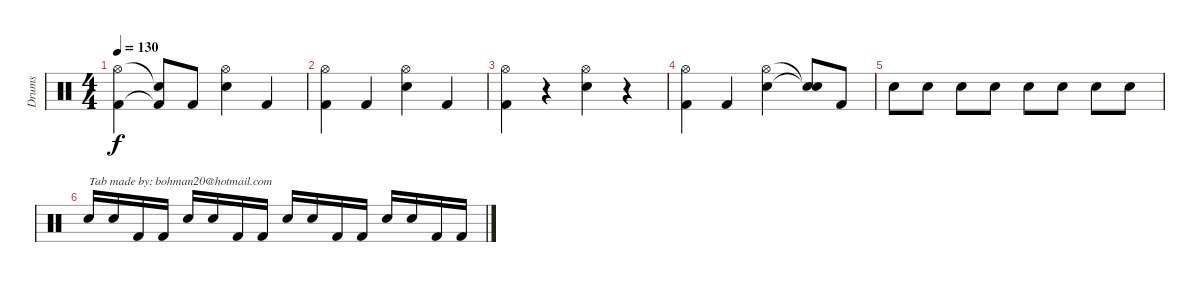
\track ("Drums" "Drums") {instrument percussion}
\staff {score}
\articulation defaults
\ts (4 4)
\tempo 130
\clef neutral
\ks c
("Hi-Hat (open)" "Kick (hit) 2").4{dy f} ("Snare (hit)"{t} "Kick (hit) 2"{t}).8 "Kick (hit) 2".8 ("Hi-Hat (open)" "Electric Snare (hit)").4 "Kick (hit) 2".4 |
("Hi-Hat (open)" "Kick (hit) 2").4 "Kick (hit) 2".4 ("Hi-Hat (open)" "Electric Snare (hit)").4 "Kick (hit) 2".4 |
("Hi-Hat (open)" "Kick (hit) 2").4 r.4 ("Hi-Hat (open)" "Electric Snare (hit)").4 r.4 |
("Hi-Hat (open)" "Kick (hit) 2").4 "Kick (hit) 2".4 ("Hi-Hat (open)" "Electric Snare (hit)").4 ("Snare (hit)"{t} "Snare (hit)"{t}).8 "Kick (hit) 2".8 |
"Electric Snare (hit)".8 "Electric Snare (hit)".8 "Electric Snare (hit)".8 "Electric Snare (hit)".8 "Electric Snare (hit)".8 "Electric Snare (hit)".8 "Electric Snare (hit)".8 "Electric Snare (hit)".8 |
"Electric Snare (hit)".16{txt "Tab made by: bohman20@hotmail.com"} "Electric Snare (hit)".16 "Kick (hit) 2".16 "Kick (hit) 2".16 "Electric Snare (hit)".16 "Electric Snare (hit)".16 "Kick (hit) 2".16 "Kick (hit) 2".16 "Electric Snare (hit)".16 "Electric Snare (hit)".16 "Kick (hit) 2".16 "Kick (hit) 2".16 "Electric Snare (hit)".16 "Electric Snare (hit)".16 "Kick (hit) 2".16 "Kick (hit) 2".16
